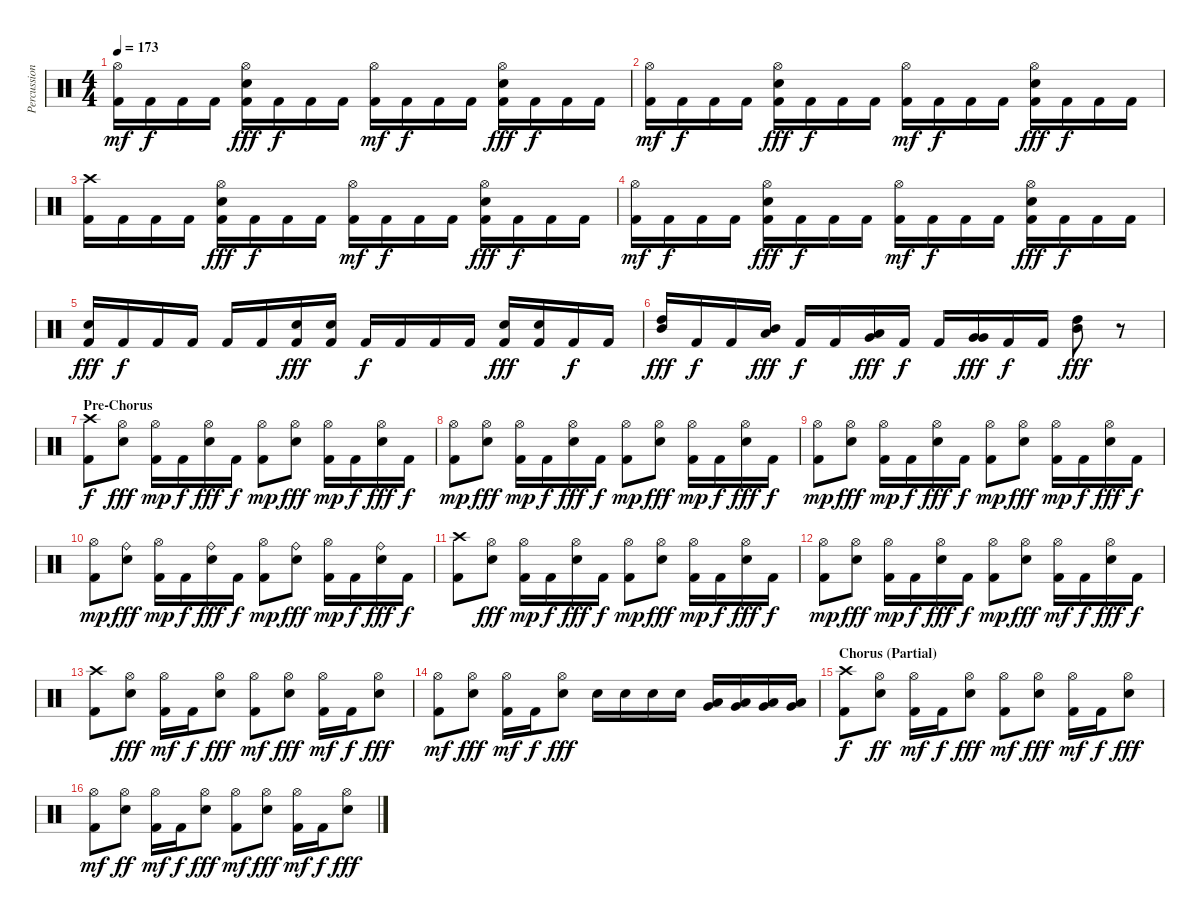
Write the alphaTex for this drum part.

\track ("Percussion" "Percussion") {instrument percussion}
\staff {score}
\articulation defaults
\ts (4 4)
\tempo 173
\clef neutral
\ks c
("Hi-Hat (open)" "Kick (hit) 2").16{dy mf} "Kick (hit) 2".16{dy f} "Kick (hit) 2".16 "Kick (hit) 2".16 ("Hi-Hat (open)" "Snare (hit) 2" "Kick (hit) 2").16{dy fff} "Kick (hit) 2".16{dy f} "Kick (hit) 2".16 "Kick (hit) 2".16 ("Hi-Hat (open)" "Kick (hit) 2").16{dy mf} "Kick (hit) 2".16{dy f} "Kick (hit) 2".16 "Kick (hit) 2".16 ("Hi-Hat (open)" "Snare (hit) 2" "Kick (hit) 2").16{dy fff} "Kick (hit) 2".16{dy f} "Kick (hit) 2".16 "Kick (hit) 2".16 |
("Hi-Hat (open)" "Kick (hit) 2").16{dy mf} "Kick (hit) 2".16{dy f} "Kick (hit) 2".16 "Kick (hit) 2".16 ("Hi-Hat (open)" "Snare (hit) 2" "Kick (hit) 2").16{dy fff} "Kick (hit) 2".16{dy f} "Kick (hit) 2".16 "Kick (hit) 2".16 ("Hi-Hat (open)" "Kick (hit) 2").16{dy mf} "Kick (hit) 2".16{dy f} "Kick (hit) 2".16 "Kick (hit) 2".16 ("Hi-Hat (open)" "Snare (hit) 2" "Kick (hit) 2").16{dy fff} "Kick (hit) 2".16{dy f} "Kick (hit) 2".16 "Kick (hit) 2".16 |
("Crash high (hit)" "Kick (hit) 2").16 "Kick (hit) 2".16 "Kick (hit) 2".16 "Kick (hit) 2".16 ("Hi-Hat (open)" "Snare (hit) 2" "Kick (hit) 2").16{dy fff} "Kick (hit) 2".16{dy f} "Kick (hit) 2".16 "Kick (hit) 2".16 ("Hi-Hat (open)" "Kick (hit) 2").16{dy mf} "Kick (hit) 2".16{dy f} "Kick (hit) 2".16 "Kick (hit) 2".16 ("Hi-Hat (open)" "Snare (hit) 2" "Kick (hit) 2").16{dy fff} "Kick (hit) 2".16{dy f} "Kick (hit) 2".16 "Kick (hit) 2".16 |
("Hi-Hat (open)" "Kick (hit) 2").16{dy mf} "Kick (hit) 2".16{dy f} "Kick (hit) 2".16 "Kick (hit) 2".16 ("Hi-Hat (open)" "Snare (hit) 2" "Kick (hit) 2").16{dy fff} "Kick (hit) 2".16{dy f} "Kick (hit) 2".16 "Kick (hit) 2".16 ("Hi-Hat (open)" "Kick (hit) 2").16{dy mf} "Kick (hit) 2".16{dy f} "Kick (hit) 2".16 "Kick (hit) 2".16 ("Hi-Hat (open)" "Snare (hit) 2" "Kick (hit) 2").16{dy fff} "Kick (hit) 2".16{dy f} "Kick (hit) 2".16 "Kick (hit) 2".16 |
("Snare (hit) 2" "Kick (hit) 2").16{dy fff} "Kick (hit) 2".16{dy f} "Kick (hit) 2".16 "Kick (hit) 2".16 "Kick (hit) 2".16 "Kick (hit) 2".16 ("Snare (hit) 2" "Kick (hit) 2").16{dy fff} ("Snare (hit) 2" "Kick (hit) 2").16 "Kick (hit) 2".16{dy f} "Kick (hit) 2".16 "Kick (hit) 2".16 "Kick (hit) 2".16 ("Snare (hit) 2" "Kick (hit) 2").16{dy fff} ("Snare (hit) 2" "Kick (hit) 2").16 "Kick (hit) 2".16{dy f} "Kick (hit) 2".16 |
("Mid Tom (hit)" "High Tom (hit)").16{dy fff} "Kick (hit) 2".16{dy f} "Kick (hit) 2".16 ("Low Tom (hit)" "Mid Tom (hit)").16{dy fff} "Kick (hit) 2".16{dy f} "Kick (hit) 2".16 ("Very Low Tom (hit)" "Low Tom (hit)").16{dy fff} "Kick (hit) 2".16{dy f} "Kick (hit) 2".16 ("Very Low Tom (hit)" "Very Low Tom (hit)").16{dy fff} "Kick (hit) 2".16{dy f} "Kick (hit) 2".16 ("Mid Tom (hit)" "High Tom (hit)").8{dy fff} r.8 |
\section ("" "Pre-Chorus")
("Crash high (hit)" "Kick (hit) 2").8{dy f} ("Hi-Hat (open)" "Snare (hit) 2").8{dy fff} ("Hi-Hat (open)" "Kick (hit) 2").16{dy mp} "Kick (hit) 2".16{dy f} ("Hi-Hat (open)" "Snare (hit) 2").16{dy fff} "Kick (hit) 2".16{dy f} ("Hi-Hat (open)" "Kick (hit) 2").8{dy mp} ("Hi-Hat (open)" "Snare (hit) 2").8{dy fff} ("Hi-Hat (open)" "Kick (hit) 2").16{dy mp} "Kick (hit) 2".16{dy f} ("Hi-Hat (open)" "Snare (hit) 2").16{dy fff} "Kick (hit) 2".16{dy f} |
("Hi-Hat (open)" "Kick (hit) 2").8{dy mp} ("Hi-Hat (open)" "Snare (hit) 2").8{dy fff} ("Hi-Hat (open)" "Kick (hit) 2").16{dy mp} "Kick (hit) 2".16{dy f} ("Hi-Hat (open)" "Snare (hit) 2").16{dy fff} "Kick (hit) 2".16{dy f} ("Hi-Hat (open)" "Kick (hit) 2").8{dy mp} ("Hi-Hat (open)" "Snare (hit) 2").8{dy fff} ("Hi-Hat (open)" "Kick (hit) 2").16{dy mp} "Kick (hit) 2".16{dy f} ("Hi-Hat (open)" "Snare (hit) 2").16{dy fff} "Kick (hit) 2".16{dy f} |
("Hi-Hat (open)" "Kick (hit) 2").8{dy mp} ("Hi-Hat (open)" "Snare (hit) 2").8{dy fff} ("Hi-Hat (open)" "Kick (hit) 2").16{dy mp} "Kick (hit) 2".16{dy f} ("Hi-Hat (open)" "Snare (hit) 2").16{dy fff} "Kick (hit) 2".16{dy f} ("Hi-Hat (open)" "Kick (hit) 2").8{dy mp} ("Hi-Hat (open)" "Snare (hit) 2").8{dy fff} ("Hi-Hat (open)" "Kick (hit) 2").16{dy mp} "Kick (hit) 2".16{dy f} ("Hi-Hat (open)" "Snare (hit) 2").16{dy fff} "Kick (hit) 2".16{dy f} |
("Hi-Hat (open)" "Kick (hit) 2").8{dy mp} ("Ride (bell)" "Snare (hit) 2").8{dy fff} ("Hi-Hat (open)" "Kick (hit) 2").16{dy mp} "Kick (hit) 2".16{dy f} ("Ride (bell)" "Snare (hit) 2").16{dy fff} "Kick (hit) 2".16{dy f} ("Hi-Hat (open)" "Kick (hit) 2").8{dy mp} ("Ride (bell)" "Snare (hit) 2").8{dy fff} ("Hi-Hat (open)" "Kick (hit) 2").16{dy mp} "Kick (hit) 2".16{dy f} ("Ride (bell)" "Snare (hit) 2").16{dy fff} "Kick (hit) 2".16{dy f} |
("Crash high (hit)" "Kick (hit) 2").8 ("Hi-Hat (open)" "Snare (hit) 2").8{dy fff} ("Hi-Hat (open)" "Kick (hit) 2").16{dy mp} "Kick (hit) 2".16{dy f} ("Hi-Hat (open)" "Snare (hit) 2").16{dy fff} "Kick (hit) 2".16{dy f} ("Hi-Hat (open)" "Kick (hit) 2").8{dy mp} ("Hi-Hat (open)" "Snare (hit) 2").8{dy fff} ("Hi-Hat (open)" "Kick (hit) 2").16{dy mp} "Kick (hit) 2".16{dy f} ("Hi-Hat (open)" "Snare (hit) 2").16{dy fff} "Kick (hit) 2".16{dy f} |
("Hi-Hat (open)" "Kick (hit) 2").8{dy mp} ("Hi-Hat (open)" "Snare (hit) 2").8{dy fff} ("Hi-Hat (open)" "Kick (hit) 2").16{dy mp} "Kick (hit) 2".16{dy f} ("Hi-Hat (open)" "Snare (hit) 2").16{dy fff} "Kick (hit) 2".16{dy f} ("Hi-Hat (open)" "Kick (hit) 2").8{dy mp} ("Hi-Hat (open)" "Snare (hit) 2").8{dy fff} ("Hi-Hat (open)" "Kick (hit) 2").16{dy mf} "Kick (hit) 2".16{dy f} ("Hi-Hat (open)" "Snare (hit) 2").16{dy fff} "Kick (hit) 2".16{dy f} |
("Crash high (hit)" "Kick (hit) 2").8 ("Hi-Hat (open)" "Snare (hit) 2").8{dy fff} ("Hi-Hat (open)" "Kick (hit) 2").16{dy mf} "Kick (hit) 2".16{dy f} ("Hi-Hat (open)" "Snare (hit) 2").8{dy fff} ("Hi-Hat (open)" "Kick (hit) 2").8{dy mf} ("Hi-Hat (open)" "Snare (hit) 2").8{dy fff} ("Hi-Hat (open)" "Kick (hit) 2").16{dy mf} "Kick (hit) 2".16{dy f} ("Hi-Hat (open)" "Snare (hit) 2").8{dy fff} |
("Hi-Hat (open)" "Kick (hit) 2").8{dy mf} ("Hi-Hat (open)" "Snare (hit) 2").8{dy fff} ("Hi-Hat (open)" "Kick (hit) 2").16{dy mf} "Kick (hit) 2".16{dy f} ("Hi-Hat (open)" "Snare (hit) 2").8{dy fff} "Snare (hit) 2".16 "Snare (hit) 2".16 "Snare (hit) 2".16 "Snare (hit) 2".16 ("Very Low Tom (hit)" "Low Tom (hit)").16 ("Very Low Tom (hit)" "Low Tom (hit)").16 ("Very Low Tom (hit)" "Low Tom (hit)").16 ("Very Low Tom (hit)" "Low Tom (hit)").16 |
\section ("" "Chorus (Partial)")
("Crash high (hit)" "Kick (hit) 2").8{dy f} ("Hi-Hat (open)" "Snare (hit) 2").8{dy ff} ("Hi-Hat (open)" "Kick (hit) 2").16{dy mf} "Kick (hit) 2".16{dy f} ("Hi-Hat (open)" "Snare (hit) 2").8{dy fff} ("Hi-Hat (open)" "Kick (hit) 2").8{dy mf} ("Hi-Hat (open)" "Snare (hit) 2").8{dy fff} ("Hi-Hat (open)" "Kick (hit) 2").16{dy mf} "Kick (hit) 2".16{dy f} ("Hi-Hat (open)" "Snare (hit) 2").8{dy fff} |
("Hi-Hat (open)" "Kick (hit) 2").8{dy mf} ("Hi-Hat (open)" "Snare (hit) 2").8{dy ff} ("Hi-Hat (open)" "Kick (hit) 2").16{dy mf} "Kick (hit) 2".16{dy f} ("Hi-Hat (open)" "Snare (hit) 2").8{dy fff} ("Hi-Hat (open)" "Kick (hit) 2").8{dy mf} ("Hi-Hat (open)" "Snare (hit) 2").8{dy fff} ("Hi-Hat (open)" "Kick (hit) 2").16{dy mf} "Kick (hit) 2".16{dy f} ("Hi-Hat (open)" "Snare (hit) 2").8{dy fff}
